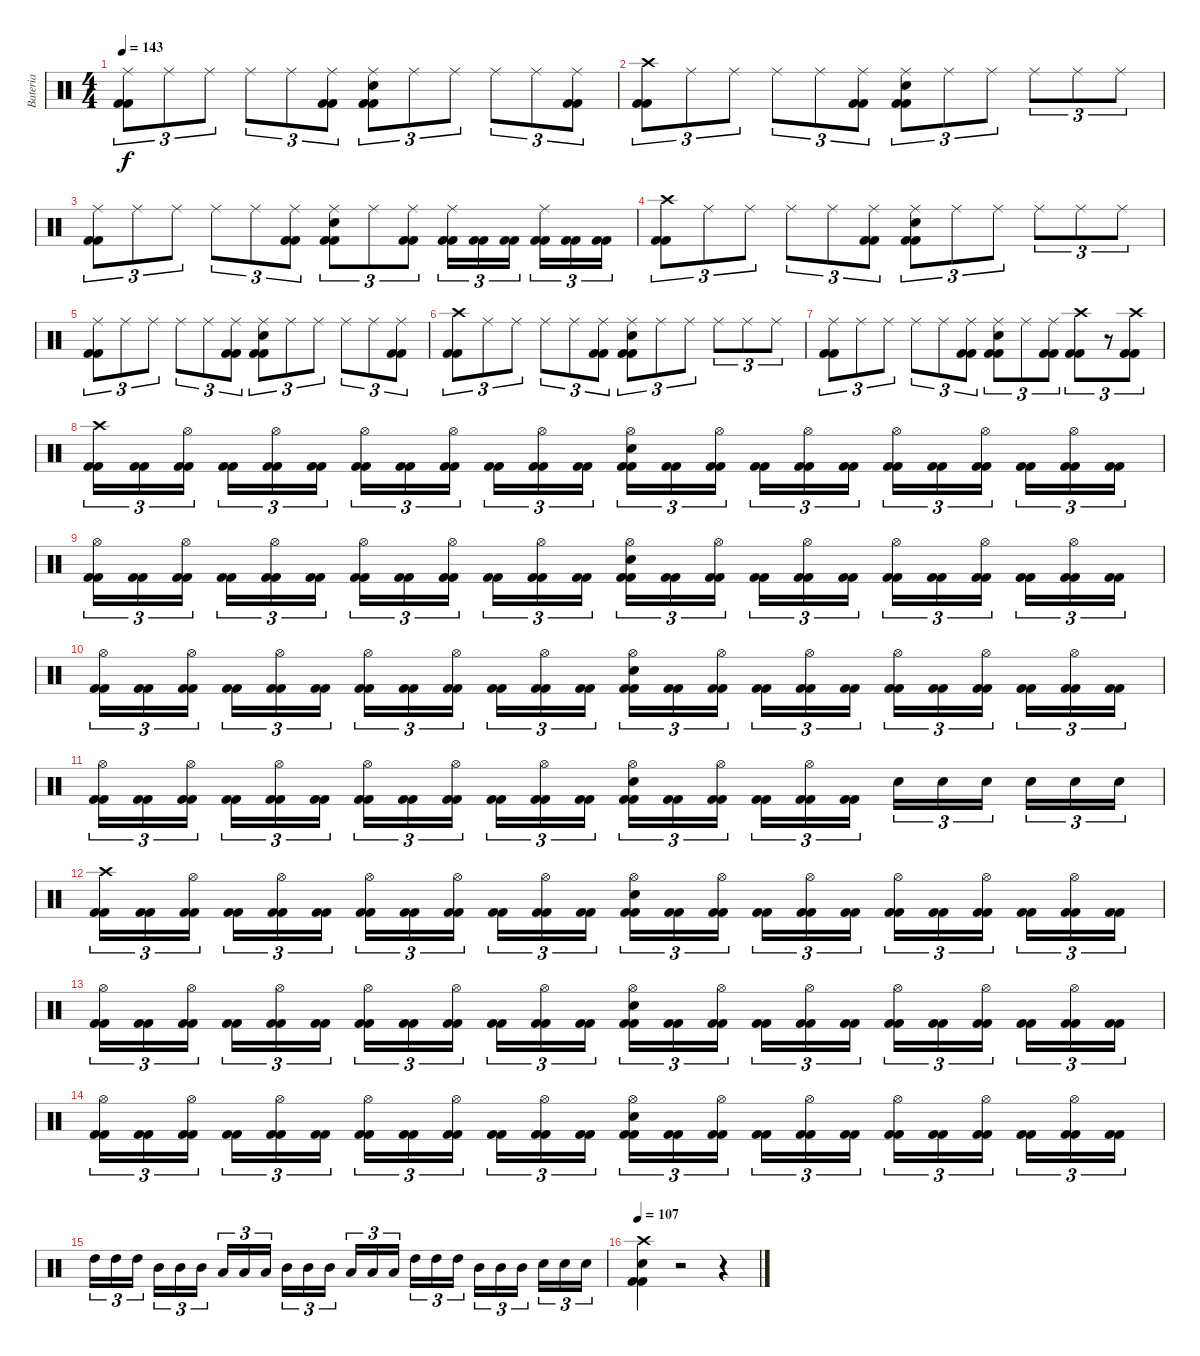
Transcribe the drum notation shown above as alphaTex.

\track ("Bateria" "Bateria") {instrument percussion}
\staff {score}
\articulation defaults
\ts (4 4)
\tempo 143
\clef neutral
\ks c
("Kick (hit) 2" "Kick (hit) 2" "Ride (middle)").8{tu (3 2) dy f} "Ride (middle)".8{tu (3 2)} "Ride (middle)".8{tu (3 2)} "Ride (middle)".8{tu (3 2)} "Ride (middle)".8{tu (3 2)} ("Kick (hit) 2" "Kick (hit) 2" "Ride (middle)").8{tu (3 2)} ("Kick (hit) 2" "Kick (hit) 2" "Snare (hit) 2" "Ride (middle)").8{tu (3 2)} "Ride (middle)".8{tu (3 2)} "Ride (middle)".8{tu (3 2)} "Ride (middle)".8{tu (3 2)} "Ride (middle)".8{tu (3 2)} ("Kick (hit) 2" "Kick (hit) 2" "Ride (middle)").8{tu (3 2)} |
("Kick (hit) 2" "Kick (hit) 2" "Crash high (hit)").8{tu (3 2)} "Ride (middle)".8{tu (3 2)} "Ride (middle)".8{tu (3 2)} "Ride (middle)".8{tu (3 2)} "Ride (middle)".8{tu (3 2)} ("Kick (hit) 2" "Kick (hit) 2" "Ride (middle)").8{tu (3 2)} ("Kick (hit) 2" "Kick (hit) 2" "Snare (hit) 2" "Ride (middle)").8{tu (3 2)} "Ride (middle)".8{tu (3 2)} "Ride (middle)".8{tu (3 2)} "Ride (middle)".8{tu (3 2)} "Ride (middle)".8{tu (3 2)} "Ride (middle)".8{tu (3 2)} |
("Kick (hit) 2" "Kick (hit) 2" "Ride (middle)").8{tu (3 2)} "Ride (middle)".8{tu (3 2)} "Ride (middle)".8{tu (3 2)} "Ride (middle)".8{tu (3 2)} "Ride (middle)".8{tu (3 2)} ("Kick (hit) 2" "Kick (hit) 2" "Ride (middle)").8{tu (3 2)} ("Kick (hit) 2" "Kick (hit) 2" "Snare (hit) 2" "Ride (middle)").8{tu (3 2)} "Ride (middle)".8{tu (3 2)} ("Kick (hit) 2" "Kick (hit) 2" "Ride (middle)").8{tu (3 2)} ("Kick (hit) 2" "Kick (hit) 2" "Ride (middle)").16{tu (3 2)} ("Kick (hit) 2" "Kick (hit) 2").16{tu (3 2)} ("Kick (hit) 2" "Kick (hit) 2").16{tu (3 2)} ("Kick (hit) 2" "Kick (hit) 2" "Ride (middle)").16{tu (3 2)} ("Kick (hit) 2" "Kick (hit) 2").16{tu (3 2)} ("Kick (hit) 2" "Kick (hit) 2").16{tu (3 2)} |
("Kick (hit) 2" "Kick (hit) 2" "Crash high (hit)").8{tu (3 2)} "Ride (middle)".8{tu (3 2)} "Ride (middle)".8{tu (3 2)} "Ride (middle)".8{tu (3 2)} "Ride (middle)".8{tu (3 2)} ("Kick (hit) 2" "Kick (hit) 2" "Ride (middle)").8{tu (3 2)} ("Kick (hit) 2" "Kick (hit) 2" "Snare (hit) 2" "Ride (middle)").8{tu (3 2)} "Ride (middle)".8{tu (3 2)} "Ride (middle)".8{tu (3 2)} "Ride (middle)".8{tu (3 2)} "Ride (middle)".8{tu (3 2)} "Ride (middle)".8{tu (3 2)} |
("Kick (hit) 2" "Kick (hit) 2" "Ride (middle)").8{tu (3 2)} "Ride (middle)".8{tu (3 2)} "Ride (middle)".8{tu (3 2)} "Ride (middle)".8{tu (3 2)} "Ride (middle)".8{tu (3 2)} ("Kick (hit) 2" "Kick (hit) 2" "Ride (middle)").8{tu (3 2)} ("Kick (hit) 2" "Kick (hit) 2" "Snare (hit) 2" "Ride (middle)").8{tu (3 2)} "Ride (middle)".8{tu (3 2)} "Ride (middle)".8{tu (3 2)} "Ride (middle)".8{tu (3 2)} "Ride (middle)".8{tu (3 2)} ("Kick (hit) 2" "Kick (hit) 2" "Ride (middle)").8{tu (3 2)} |
("Kick (hit) 2" "Kick (hit) 2" "Crash high (hit)").8{tu (3 2)} "Ride (middle)".8{tu (3 2)} "Ride (middle)".8{tu (3 2)} "Ride (middle)".8{tu (3 2)} "Ride (middle)".8{tu (3 2)} ("Kick (hit) 2" "Kick (hit) 2" "Ride (middle)").8{tu (3 2)} ("Kick (hit) 2" "Kick (hit) 2" "Snare (hit) 2" "Ride (middle)").8{tu (3 2)} "Ride (middle)".8{tu (3 2)} "Ride (middle)".8{tu (3 2)} "Ride (middle)".8{tu (3 2)} "Ride (middle)".8{tu (3 2)} "Ride (middle)".8{tu (3 2)} |
("Kick (hit) 2" "Kick (hit) 2" "Ride (middle)").8{tu (3 2)} "Ride (middle)".8{tu (3 2)} "Ride (middle)".8{tu (3 2)} "Ride (middle)".8{tu (3 2)} "Ride (middle)".8{tu (3 2)} ("Kick (hit) 2" "Kick (hit) 2" "Ride (middle)").8{tu (3 2)} ("Kick (hit) 2" "Kick (hit) 2" "Snare (hit) 2" "Ride (middle)").8{tu (3 2)} "Ride (middle)".8{tu (3 2)} ("Kick (hit) 2" "Kick (hit) 2" "Ride (middle)").8{tu (3 2)} ("Kick (hit) 2" "Kick (hit) 2" "Crash high (hit)").8{tu (3 2)} r.8{tu (3 2)} ("Kick (hit) 2" "Kick (hit) 2" "Crash high (hit)").8{tu (3 2)} |
("Kick (hit) 2" "Kick (hit) 2" "Crash high (hit)").16{tu (3 2)} ("Kick (hit) 2" "Kick (hit) 2").16{tu (3 2)} ("Kick (hit) 2" "Kick (hit) 2" "Hi-Hat (open)").16{tu (3 2)} ("Kick (hit) 2" "Kick (hit) 2").16{tu (3 2)} ("Kick (hit) 2" "Kick (hit) 2" "Hi-Hat (open)").16{tu (3 2)} ("Kick (hit) 2" "Kick (hit) 2").16{tu (3 2)} ("Kick (hit) 2" "Kick (hit) 2" "Hi-Hat (open)").16{tu (3 2)} ("Kick (hit) 2" "Kick (hit) 2").16{tu (3 2)} ("Kick (hit) 2" "Kick (hit) 2" "Hi-Hat (open)").16{tu (3 2)} ("Kick (hit) 2" "Kick (hit) 2").16{tu (3 2)} ("Kick (hit) 2" "Kick (hit) 2" "Hi-Hat (open)").16{tu (3 2)} ("Kick (hit) 2" "Kick (hit) 2").16{tu (3 2)} ("Kick (hit) 2" "Kick (hit) 2" "Snare (hit) 2" "Hi-Hat (open)").16{tu (3 2)} ("Kick (hit) 2" "Kick (hit) 2").16{tu (3 2)} ("Kick (hit) 2" "Kick (hit) 2" "Hi-Hat (open)").16{tu (3 2)} ("Kick (hit) 2" "Kick (hit) 2").16{tu (3 2)} ("Kick (hit) 2" "Kick (hit) 2" "Hi-Hat (open)").16{tu (3 2)} ("Kick (hit) 2" "Kick (hit) 2").16{tu (3 2)} ("Kick (hit) 2" "Kick (hit) 2" "Hi-Hat (open)").16{tu (3 2)} ("Kick (hit) 2" "Kick (hit) 2").16{tu (3 2)} ("Kick (hit) 2" "Kick (hit) 2" "Hi-Hat (open)").16{tu (3 2)} ("Kick (hit) 2" "Kick (hit) 2").16{tu (3 2)} ("Kick (hit) 2" "Kick (hit) 2" "Hi-Hat (open)").16{tu (3 2)} ("Kick (hit) 2" "Kick (hit) 2").16{tu (3 2)} |
("Kick (hit) 2" "Kick (hit) 2" "Hi-Hat (open)").16{tu (3 2)} ("Kick (hit) 2" "Kick (hit) 2").16{tu (3 2)} ("Kick (hit) 2" "Kick (hit) 2" "Hi-Hat (open)").16{tu (3 2)} ("Kick (hit) 2" "Kick (hit) 2").16{tu (3 2)} ("Kick (hit) 2" "Kick (hit) 2" "Hi-Hat (open)").16{tu (3 2)} ("Kick (hit) 2" "Kick (hit) 2").16{tu (3 2)} ("Kick (hit) 2" "Kick (hit) 2" "Hi-Hat (open)").16{tu (3 2)} ("Kick (hit) 2" "Kick (hit) 2").16{tu (3 2)} ("Kick (hit) 2" "Kick (hit) 2" "Hi-Hat (open)").16{tu (3 2)} ("Kick (hit) 2" "Kick (hit) 2").16{tu (3 2)} ("Kick (hit) 2" "Kick (hit) 2" "Hi-Hat (open)").16{tu (3 2)} ("Kick (hit) 2" "Kick (hit) 2").16{tu (3 2)} ("Kick (hit) 2" "Kick (hit) 2" "Snare (hit) 2" "Hi-Hat (open)").16{tu (3 2)} ("Kick (hit) 2" "Kick (hit) 2").16{tu (3 2)} ("Kick (hit) 2" "Kick (hit) 2" "Hi-Hat (open)").16{tu (3 2)} ("Kick (hit) 2" "Kick (hit) 2").16{tu (3 2)} ("Kick (hit) 2" "Kick (hit) 2" "Hi-Hat (open)").16{tu (3 2)} ("Kick (hit) 2" "Kick (hit) 2").16{tu (3 2)} ("Kick (hit) 2" "Kick (hit) 2" "Hi-Hat (open)").16{tu (3 2)} ("Kick (hit) 2" "Kick (hit) 2").16{tu (3 2)} ("Kick (hit) 2" "Kick (hit) 2" "Hi-Hat (open)").16{tu (3 2)} ("Kick (hit) 2" "Kick (hit) 2").16{tu (3 2)} ("Kick (hit) 2" "Kick (hit) 2" "Hi-Hat (open)").16{tu (3 2)} ("Kick (hit) 2" "Kick (hit) 2").16{tu (3 2)} |
("Kick (hit) 2" "Kick (hit) 2" "Hi-Hat (open)").16{tu (3 2)} ("Kick (hit) 2" "Kick (hit) 2").16{tu (3 2)} ("Kick (hit) 2" "Kick (hit) 2" "Hi-Hat (open)").16{tu (3 2)} ("Kick (hit) 2" "Kick (hit) 2").16{tu (3 2)} ("Kick (hit) 2" "Kick (hit) 2" "Hi-Hat (open)").16{tu (3 2)} ("Kick (hit) 2" "Kick (hit) 2").16{tu (3 2)} ("Kick (hit) 2" "Kick (hit) 2" "Hi-Hat (open)").16{tu (3 2)} ("Kick (hit) 2" "Kick (hit) 2").16{tu (3 2)} ("Kick (hit) 2" "Kick (hit) 2" "Hi-Hat (open)").16{tu (3 2)} ("Kick (hit) 2" "Kick (hit) 2").16{tu (3 2)} ("Kick (hit) 2" "Kick (hit) 2" "Hi-Hat (open)").16{tu (3 2)} ("Kick (hit) 2" "Kick (hit) 2").16{tu (3 2)} ("Kick (hit) 2" "Kick (hit) 2" "Snare (hit) 2" "Hi-Hat (open)").16{tu (3 2)} ("Kick (hit) 2" "Kick (hit) 2").16{tu (3 2)} ("Kick (hit) 2" "Kick (hit) 2" "Hi-Hat (open)").16{tu (3 2)} ("Kick (hit) 2" "Kick (hit) 2").16{tu (3 2)} ("Kick (hit) 2" "Kick (hit) 2" "Hi-Hat (open)").16{tu (3 2)} ("Kick (hit) 2" "Kick (hit) 2").16{tu (3 2)} ("Kick (hit) 2" "Kick (hit) 2" "Hi-Hat (open)").16{tu (3 2)} ("Kick (hit) 2" "Kick (hit) 2").16{tu (3 2)} ("Kick (hit) 2" "Kick (hit) 2" "Hi-Hat (open)").16{tu (3 2)} ("Kick (hit) 2" "Kick (hit) 2").16{tu (3 2)} ("Kick (hit) 2" "Kick (hit) 2" "Hi-Hat (open)").16{tu (3 2)} ("Kick (hit) 2" "Kick (hit) 2").16{tu (3 2)} |
("Kick (hit) 2" "Kick (hit) 2" "Hi-Hat (open)").16{tu (3 2)} ("Kick (hit) 2" "Kick (hit) 2").16{tu (3 2)} ("Kick (hit) 2" "Kick (hit) 2" "Hi-Hat (open)").16{tu (3 2)} ("Kick (hit) 2" "Kick (hit) 2").16{tu (3 2)} ("Kick (hit) 2" "Kick (hit) 2" "Hi-Hat (open)").16{tu (3 2)} ("Kick (hit) 2" "Kick (hit) 2").16{tu (3 2)} ("Kick (hit) 2" "Kick (hit) 2" "Hi-Hat (open)").16{tu (3 2)} ("Kick (hit) 2" "Kick (hit) 2").16{tu (3 2)} ("Kick (hit) 2" "Kick (hit) 2" "Hi-Hat (open)").16{tu (3 2)} ("Kick (hit) 2" "Kick (hit) 2").16{tu (3 2)} ("Kick (hit) 2" "Kick (hit) 2" "Hi-Hat (open)").16{tu (3 2)} ("Kick (hit) 2" "Kick (hit) 2").16{tu (3 2)} ("Kick (hit) 2" "Kick (hit) 2" "Snare (hit) 2" "Hi-Hat (open)").16{tu (3 2)} ("Kick (hit) 2" "Kick (hit) 2").16{tu (3 2)} ("Kick (hit) 2" "Kick (hit) 2" "Hi-Hat (open)").16{tu (3 2)} ("Kick (hit) 2" "Kick (hit) 2").16{tu (3 2)} ("Kick (hit) 2" "Kick (hit) 2" "Hi-Hat (open)").16{tu (3 2)} ("Kick (hit) 2" "Kick (hit) 2").16{tu (3 2)} "Snare (hit) 2".16{tu (3 2)} "Snare (hit) 2".16{tu (3 2)} "Snare (hit) 2".16{tu (3 2)} "Snare (hit) 2".16{tu (3 2)} "Snare (hit) 2".16{tu (3 2)} "Snare (hit) 2".16{tu (3 2)} |
("Kick (hit) 2" "Kick (hit) 2" "Crash high (hit)").16{tu (3 2)} ("Kick (hit) 2" "Kick (hit) 2").16{tu (3 2)} ("Kick (hit) 2" "Kick (hit) 2" "Hi-Hat (open)").16{tu (3 2)} ("Kick (hit) 2" "Kick (hit) 2").16{tu (3 2)} ("Kick (hit) 2" "Kick (hit) 2" "Hi-Hat (open)").16{tu (3 2)} ("Kick (hit) 2" "Kick (hit) 2").16{tu (3 2)} ("Kick (hit) 2" "Kick (hit) 2" "Hi-Hat (open)").16{tu (3 2)} ("Kick (hit) 2" "Kick (hit) 2").16{tu (3 2)} ("Kick (hit) 2" "Kick (hit) 2" "Hi-Hat (open)").16{tu (3 2)} ("Kick (hit) 2" "Kick (hit) 2").16{tu (3 2)} ("Kick (hit) 2" "Kick (hit) 2" "Hi-Hat (open)").16{tu (3 2)} ("Kick (hit) 2" "Kick (hit) 2").16{tu (3 2)} ("Kick (hit) 2" "Kick (hit) 2" "Snare (hit) 2" "Hi-Hat (open)").16{tu (3 2)} ("Kick (hit) 2" "Kick (hit) 2").16{tu (3 2)} ("Kick (hit) 2" "Kick (hit) 2" "Hi-Hat (open)").16{tu (3 2)} ("Kick (hit) 2" "Kick (hit) 2").16{tu (3 2)} ("Kick (hit) 2" "Kick (hit) 2" "Hi-Hat (open)").16{tu (3 2)} ("Kick (hit) 2" "Kick (hit) 2").16{tu (3 2)} ("Kick (hit) 2" "Kick (hit) 2" "Hi-Hat (open)").16{tu (3 2)} ("Kick (hit) 2" "Kick (hit) 2").16{tu (3 2)} ("Kick (hit) 2" "Kick (hit) 2" "Hi-Hat (open)").16{tu (3 2)} ("Kick (hit) 2" "Kick (hit) 2").16{tu (3 2)} ("Kick (hit) 2" "Kick (hit) 2" "Hi-Hat (open)").16{tu (3 2)} ("Kick (hit) 2" "Kick (hit) 2").16{tu (3 2)} |
("Kick (hit) 2" "Kick (hit) 2" "Hi-Hat (open)").16{tu (3 2)} ("Kick (hit) 2" "Kick (hit) 2").16{tu (3 2)} ("Kick (hit) 2" "Kick (hit) 2" "Hi-Hat (open)").16{tu (3 2)} ("Kick (hit) 2" "Kick (hit) 2").16{tu (3 2)} ("Kick (hit) 2" "Kick (hit) 2" "Hi-Hat (open)").16{tu (3 2)} ("Kick (hit) 2" "Kick (hit) 2").16{tu (3 2)} ("Kick (hit) 2" "Kick (hit) 2" "Hi-Hat (open)").16{tu (3 2)} ("Kick (hit) 2" "Kick (hit) 2").16{tu (3 2)} ("Kick (hit) 2" "Kick (hit) 2" "Hi-Hat (open)").16{tu (3 2)} ("Kick (hit) 2" "Kick (hit) 2").16{tu (3 2)} ("Kick (hit) 2" "Kick (hit) 2" "Hi-Hat (open)").16{tu (3 2)} ("Kick (hit) 2" "Kick (hit) 2").16{tu (3 2)} ("Kick (hit) 2" "Kick (hit) 2" "Snare (hit) 2" "Hi-Hat (open)").16{tu (3 2)} ("Kick (hit) 2" "Kick (hit) 2").16{tu (3 2)} ("Kick (hit) 2" "Kick (hit) 2" "Hi-Hat (open)").16{tu (3 2)} ("Kick (hit) 2" "Kick (hit) 2").16{tu (3 2)} ("Kick (hit) 2" "Kick (hit) 2" "Hi-Hat (open)").16{tu (3 2)} ("Kick (hit) 2" "Kick (hit) 2").16{tu (3 2)} ("Kick (hit) 2" "Kick (hit) 2" "Hi-Hat (open)").16{tu (3 2)} ("Kick (hit) 2" "Kick (hit) 2").16{tu (3 2)} ("Kick (hit) 2" "Kick (hit) 2" "Hi-Hat (open)").16{tu (3 2)} ("Kick (hit) 2" "Kick (hit) 2").16{tu (3 2)} ("Kick (hit) 2" "Kick (hit) 2" "Hi-Hat (open)").16{tu (3 2)} ("Kick (hit) 2" "Kick (hit) 2").16{tu (3 2)} |
("Kick (hit) 2" "Kick (hit) 2" "Hi-Hat (open)").16{tu (3 2)} ("Kick (hit) 2" "Kick (hit) 2").16{tu (3 2)} ("Kick (hit) 2" "Kick (hit) 2" "Hi-Hat (open)").16{tu (3 2)} ("Kick (hit) 2" "Kick (hit) 2").16{tu (3 2)} ("Kick (hit) 2" "Kick (hit) 2" "Hi-Hat (open)").16{tu (3 2)} ("Kick (hit) 2" "Kick (hit) 2").16{tu (3 2)} ("Kick (hit) 2" "Kick (hit) 2" "Hi-Hat (open)").16{tu (3 2)} ("Kick (hit) 2" "Kick (hit) 2").16{tu (3 2)} ("Kick (hit) 2" "Kick (hit) 2" "Hi-Hat (open)").16{tu (3 2)} ("Kick (hit) 2" "Kick (hit) 2").16{tu (3 2)} ("Kick (hit) 2" "Kick (hit) 2" "Hi-Hat (open)").16{tu (3 2)} ("Kick (hit) 2" "Kick (hit) 2").16{tu (3 2)} ("Kick (hit) 2" "Kick (hit) 2" "Snare (hit) 2" "Hi-Hat (open)").16{tu (3 2)} ("Kick (hit) 2" "Kick (hit) 2").16{tu (3 2)} ("Kick (hit) 2" "Kick (hit) 2" "Hi-Hat (open)").16{tu (3 2)} ("Kick (hit) 2" "Kick (hit) 2").16{tu (3 2)} ("Kick (hit) 2" "Kick (hit) 2" "Hi-Hat (open)").16{tu (3 2)} ("Kick (hit) 2" "Kick (hit) 2").16{tu (3 2)} ("Kick (hit) 2" "Kick (hit) 2" "Hi-Hat (open)").16{tu (3 2)} ("Kick (hit) 2" "Kick (hit) 2").16{tu (3 2)} ("Kick (hit) 2" "Kick (hit) 2" "Hi-Hat (open)").16{tu (3 2)} ("Kick (hit) 2" "Kick (hit) 2").16{tu (3 2)} ("Kick (hit) 2" "Kick (hit) 2" "Hi-Hat (open)").16{tu (3 2)} ("Kick (hit) 2" "Kick (hit) 2").16{tu (3 2)} |
"High Tom (hit)".16{tu (3 2)} "High Tom (hit)".16{tu (3 2)} "High Tom (hit)".16{tu (3 2)} "Mid Tom (hit)".16{tu (3 2)} "Mid Tom (hit)".16{tu (3 2)} "Mid Tom (hit)".16{tu (3 2)} "Low Tom (hit)".16{tu (3 2)} "Low Tom (hit)".16{tu (3 2)} "Low Tom (hit)".16{tu (3 2)} "Mid Tom (hit)".16{tu (3 2)} "Mid Tom (hit)".16{tu (3 2)} "Mid Tom (hit)".16{tu (3 2)} "Low Tom (hit)".16{tu (3 2)} "Low Tom (hit)".16{tu (3 2)} "Low Tom (hit)".16{tu (3 2)} "High Tom (hit)".16{tu (3 2)} "High Tom (hit)".16{tu (3 2)} "High Tom (hit)".16{tu (3 2)} "Mid Tom (hit)".16{tu (3 2)} "Mid Tom (hit)".16{tu (3 2)} "Mid Tom (hit)".16{tu (3 2)} "Snare (hit) 2".16{tu (3 2)} "Snare (hit) 2".16{tu (3 2)} "Snare (hit) 2".16{tu (3 2)} |
\tempo 107
("Kick (hit) 2" "Kick (hit) 2" "Snare (hit) 2" "Crash high (hit)").4 r.2 r.4
